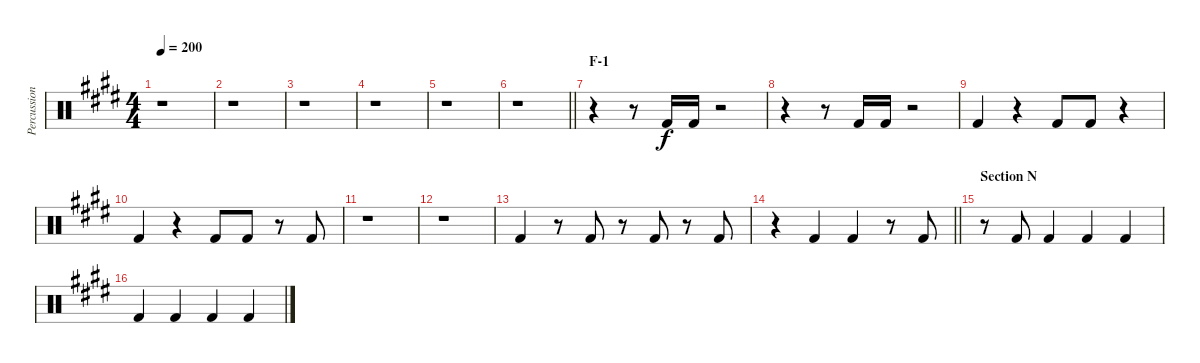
\track ("Percussion - bass drum" "Percussion") {instrument percussion}
\staff {score}
\articulation defaults
\ts (4 4)
\tempo 200
\clef neutral
\ks e
r.1{dy f} |
r.1 |
r.1 |
r.1 |
r.1 |
\barLineRight lightlight
r.1 |
\section ("" "F-1")
r.4 r.8 "Kick (hit) 2".16 "Kick (hit) 2".16 r.2 |
r.4 r.8 "Kick (hit) 2".16 "Kick (hit) 2".16 r.2 |
"Kick (hit) 2".4 r.4 "Kick (hit) 2".8 "Kick (hit) 2".8 r.4 |
"Kick (hit) 2".4 r.4 "Kick (hit) 2".8 "Kick (hit) 2".8 r.8 "Kick (hit) 2".8 |
r.1 |
r.1 |
"Kick (hit) 2".4 r.8 "Kick (hit) 2".8 r.8 "Kick (hit) 2".8 r.8 "Kick (hit) 2".8 |
\barLineRight lightlight
r.4 "Kick (hit) 2".4 "Kick (hit) 2".4 r.8 "Kick (hit) 2".8 |
\section ("" "Section N")
r.8 "Kick (hit) 2".8 "Kick (hit) 2".4 "Kick (hit) 2".4 "Kick (hit) 2".4 |
"Kick (hit) 2".4 "Kick (hit) 2".4 "Kick (hit) 2".4 "Kick (hit) 2".4
